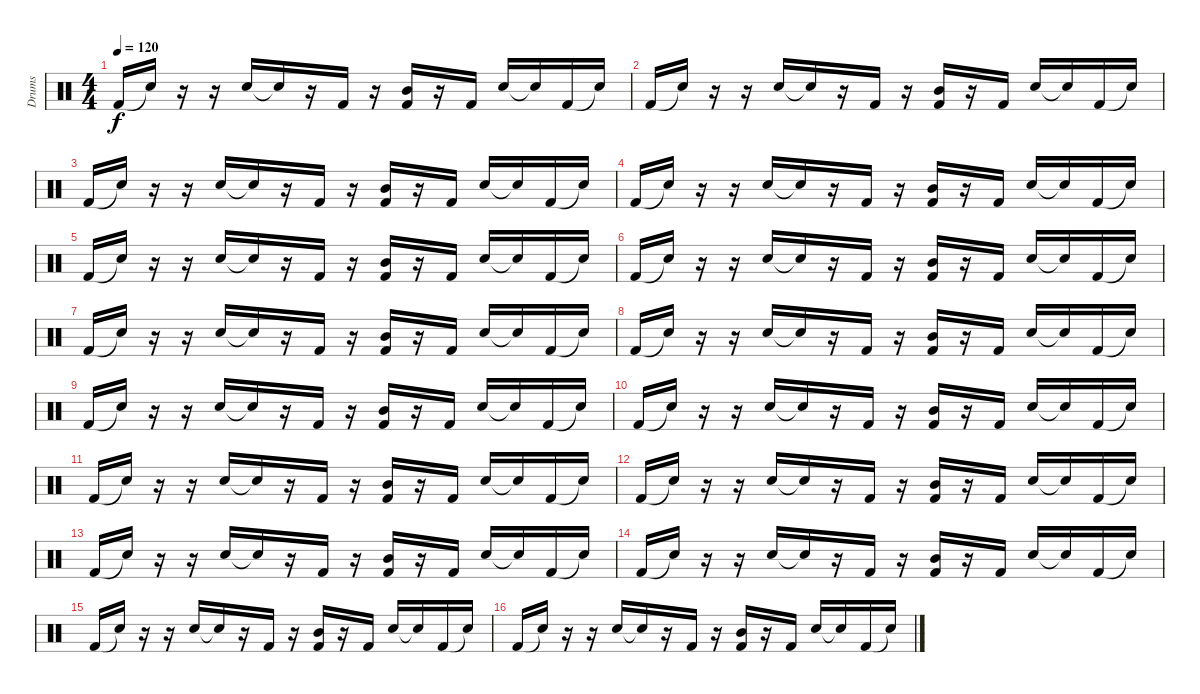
\track ("Drums" "Drums") {instrument percussion}
\staff {score}
\articulation defaults
\ts (4 4)
\tempo 120
\clef neutral
\ks c "Kick (hit) 2".16{dy f} "Snare (hit)"{t}.16
r.16 r.16 "Snare (hit) 2".16 "Snare (hit)"{t}.16 r.16 "Kick (hit) 2".16 r.16 ("Mid Tom (hit)" "Kick (hit) 2").16 r.16 "Kick (hit) 2".16 "Snare (hit) 2".16 "Snare (hit)"{t}.16 "Kick (hit) 2".16 "Snare (hit)"{t}.16 |
"Kick (hit) 2".16 "Snare (hit)"{t}.16 r.16 r.16 "Snare (hit) 2".16 "Snare (hit)"{t}.16 r.16 "Kick (hit) 2".16 r.16 ("Mid Tom (hit)" "Kick (hit) 2").16 r.16 "Kick (hit) 2".16 "Snare (hit) 2".16 "Snare (hit)"{t}.16 "Kick (hit) 2".16 "Snare (hit)"{t}.16 |
"Kick (hit) 2".16 "Snare (hit)"{t}.16 r.16 r.16 "Snare (hit) 2".16 "Snare (hit)"{t}.16 r.16 "Kick (hit) 2".16 r.16 ("Mid Tom (hit)" "Kick (hit) 2").16 r.16 "Kick (hit) 2".16 "Snare (hit) 2".16 "Snare (hit)"{t}.16 "Kick (hit) 2".16 "Snare (hit)"{t}.16 |
"Kick (hit) 2".16 "Snare (hit)"{t}.16 r.16 r.16 "Snare (hit) 2".16 "Snare (hit)"{t}.16 r.16 "Kick (hit) 2".16 r.16 ("Mid Tom (hit)" "Kick (hit) 2").16 r.16 "Kick (hit) 2".16 "Snare (hit) 2".16 "Snare (hit)"{t}.16 "Kick (hit) 2".16 "Snare (hit)"{t}.16 |
"Kick (hit) 2".16 "Snare (hit)"{t}.16 r.16 r.16 "Snare (hit) 2".16 "Snare (hit)"{t}.16 r.16 "Kick (hit) 2".16 r.16 ("Mid Tom (hit)" "Kick (hit) 2").16 r.16 "Kick (hit) 2".16 "Snare (hit) 2".16 "Snare (hit)"{t}.16 "Kick (hit) 2".16 "Snare (hit)"{t}.16 |
"Kick (hit) 2".16 "Snare (hit)"{t}.16 r.16 r.16 "Snare (hit) 2".16 "Snare (hit)"{t}.16 r.16 "Kick (hit) 2".16 r.16 ("Mid Tom (hit)" "Kick (hit) 2").16 r.16 "Kick (hit) 2".16 "Snare (hit) 2".16 "Snare (hit)"{t}.16 "Kick (hit) 2".16 "Snare (hit)"{t}.16 |
"Kick (hit) 2".16 "Snare (hit)"{t}.16 r.16 r.16 "Snare (hit) 2".16 "Snare (hit)"{t}.16 r.16 "Kick (hit) 2".16 r.16 ("Mid Tom (hit)" "Kick (hit) 2").16 r.16 "Kick (hit) 2".16 "Snare (hit) 2".16 "Snare (hit)"{t}.16 "Kick (hit) 2".16 "Snare (hit)"{t}.16 |
"Kick (hit) 2".16 "Snare (hit)"{t}.16 r.16 r.16 "Snare (hit) 2".16 "Snare (hit)"{t}.16 r.16 "Kick (hit) 2".16 r.16 ("Mid Tom (hit)" "Kick (hit) 2").16 r.16 "Kick (hit) 2".16 "Snare (hit) 2".16 "Snare (hit)"{t}.16 "Kick (hit) 2".16 "Snare (hit)"{t}.16 |
"Kick (hit) 2".16 "Snare (hit)"{t}.16 r.16 r.16 "Snare (hit) 2".16 "Snare (hit)"{t}.16 r.16 "Kick (hit) 2".16 r.16 ("Mid Tom (hit)" "Kick (hit) 2").16 r.16 "Kick (hit) 2".16 "Snare (hit) 2".16 "Snare (hit)"{t}.16 "Kick (hit) 2".16 "Snare (hit)"{t}.16 |
"Kick (hit) 2".16 "Snare (hit)"{t}.16 r.16 r.16 "Snare (hit) 2".16 "Snare (hit)"{t}.16 r.16 "Kick (hit) 2".16 r.16 ("Mid Tom (hit)" "Kick (hit) 2").16 r.16 "Kick (hit) 2".16 "Snare (hit) 2".16 "Snare (hit)"{t}.16 "Kick (hit) 2".16 "Snare (hit)"{t}.16 |
"Kick (hit) 2".16 "Snare (hit)"{t}.16 r.16 r.16 "Snare (hit) 2".16 "Snare (hit)"{t}.16 r.16 "Kick (hit) 2".16 r.16 ("Mid Tom (hit)" "Kick (hit) 2").16 r.16 "Kick (hit) 2".16 "Snare (hit) 2".16 "Snare (hit)"{t}.16 "Kick (hit) 2".16 "Snare (hit)"{t}.16 |
"Kick (hit) 2".16 "Snare (hit)"{t}.16 r.16 r.16 "Snare (hit) 2".16 "Snare (hit)"{t}.16 r.16 "Kick (hit) 2".16 r.16 ("Mid Tom (hit)" "Kick (hit) 2").16 r.16 "Kick (hit) 2".16 "Snare (hit) 2".16 "Snare (hit)"{t}.16 "Kick (hit) 2".16 "Snare (hit)"{t}.16 |
"Kick (hit) 2".16 "Snare (hit)"{t}.16 r.16 r.16 "Snare (hit) 2".16 "Snare (hit)"{t}.16 r.16 "Kick (hit) 2".16 r.16 ("Mid Tom (hit)" "Kick (hit) 2").16 r.16 "Kick (hit) 2".16 "Snare (hit) 2".16 "Snare (hit)"{t}.16 "Kick (hit) 2".16 "Snare (hit)"{t}.16 |
"Kick (hit) 2".16 "Snare (hit)"{t}.16 r.16 r.16 "Snare (hit) 2".16 "Snare (hit)"{t}.16 r.16 "Kick (hit) 2".16 r.16 ("Mid Tom (hit)" "Kick (hit) 2").16 r.16 "Kick (hit) 2".16 "Snare (hit) 2".16 "Snare (hit)"{t}.16 "Kick (hit) 2".16 "Snare (hit)"{t}.16 |
"Kick (hit) 2".16 "Snare (hit)"{t}.16 r.16 r.16 "Snare (hit) 2".16 "Snare (hit)"{t}.16 r.16 "Kick (hit) 2".16 r.16 ("Mid Tom (hit)" "Kick (hit) 2").16 r.16 "Kick (hit) 2".16 "Snare (hit) 2".16 "Snare (hit)"{t}.16 "Kick (hit) 2".16 "Snare (hit)"{t}.16 |
"Kick (hit) 2".16 "Snare (hit)"{t}.16 r.16 r.16 "Snare (hit) 2".16 "Snare (hit)"{t}.16 r.16 "Kick (hit) 2".16 r.16 ("Mid Tom (hit)" "Kick (hit) 2").16 r.16 "Kick (hit) 2".16 "Snare (hit) 2".16 "Snare (hit)"{t}.16 "Kick (hit) 2".16 "Snare (hit)"{t}.16
